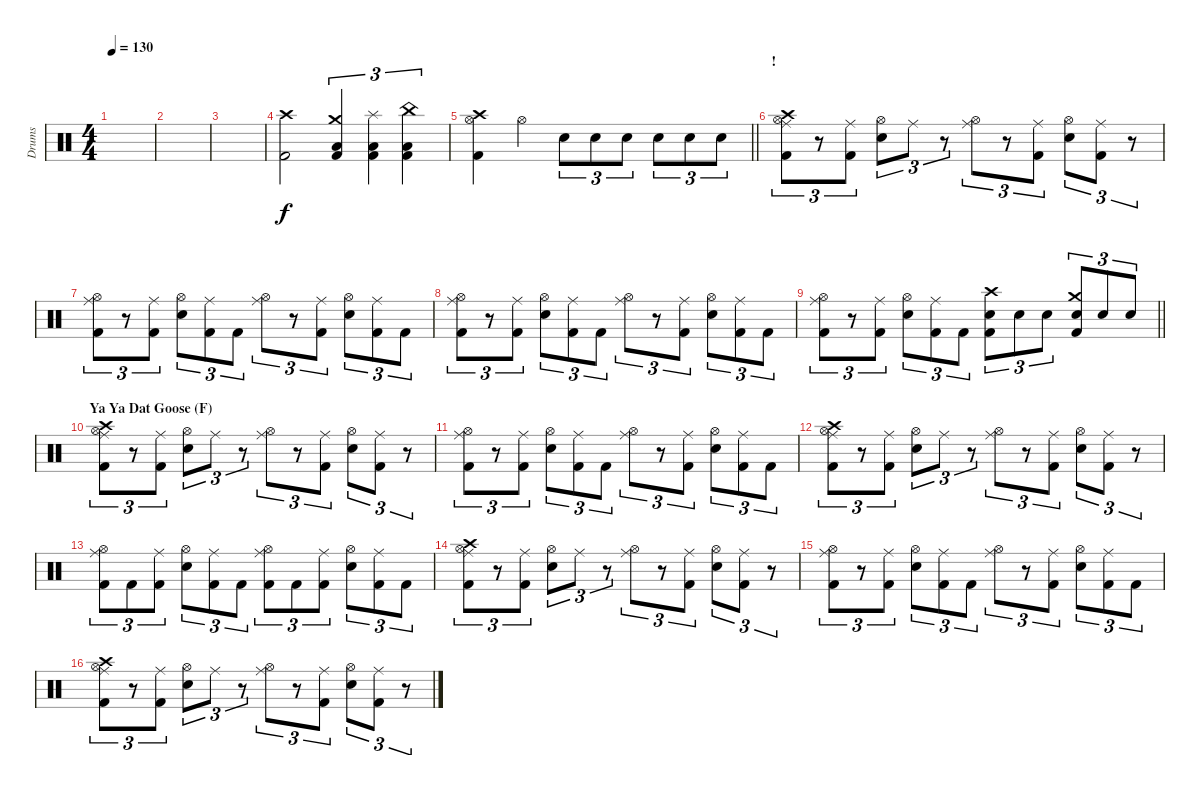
\track ("Drums" "Drums") {instrument percussion}
\staff {score}
\articulation defaults
\ts (4 4)
\tempo 130
\clef neutral
\ks c
|
|
|
("Crash high (hit)" "Kick (hit) 2").2 ("Crash medium (hit)" "Low Floor Tom (hit)" "Kick (hit) 2").4{tu (3 2)} ("Splash (hit)" "Low Floor Tom (hit)" "Kick (hit) 2").4{tu (3 2)} ("China (hit)" "Low Floor Tom (hit)" "Kick (hit) 2").4{tu (3 2)} |
\barLineRight lightlight
("Crash high (hit)" "Hi-Hat (open)" "Kick (hit) 2").4 "Hi-Hat (open)".4 "Snare (hit) 2".8{tu (3 2)} "Snare (hit) 2".8{tu (3 2)} "Snare (hit) 2".8{tu (3 2)} "Snare (hit) 2".8{tu (3 2)} "Snare (hit) 2".8{tu (3 2)} "Snare (hit) 2".8{tu (3 2)} |
\section ("" "!")
("Crash high (hit)" "Ride (middle)" "Hi-Hat (open)" "Kick (hit) 2").8{tu (3 2)} r.8{tu (3 2)} ("Ride (middle)" "Kick (hit) 2").8{tu (3 2)} ("Hi-Hat (open)" "Snare (hit) 2").8{tu (3 2)} "Ride (middle)".8{tu (3 2)} r.8{tu (3 2)} ("Ride (middle)" "Hi-Hat (open)").8{tu (3 2)} r.8{tu (3 2)} ("Ride (middle)" "Kick (hit) 2").8{tu (3 2)} ("Hi-Hat (open)" "Snare (hit) 2").8{tu (3 2)} ("Ride (middle)" "Kick (hit) 2").8{tu (3 2)} r.8{tu (3 2)} |
("Ride (middle)" "Hi-Hat (open)" "Kick (hit) 2").8{tu (3 2)} r.8{tu (3 2)} ("Ride (middle)" "Kick (hit) 2").8{tu (3 2)} ("Hi-Hat (open)" "Snare (hit) 2").8{tu (3 2)} ("Ride (middle)" "Kick (hit) 2").8{tu (3 2)} "Kick (hit) 2".8{tu (3 2)} ("Ride (middle)" "Hi-Hat (open)").8{tu (3 2)} r.8{tu (3 2)} ("Ride (middle)" "Kick (hit) 2").8{tu (3 2)} ("Hi-Hat (open)" "Snare (hit) 2").8{tu (3 2)} ("Ride (middle)" "Kick (hit) 2").8{tu (3 2)} "Kick (hit) 2".8{tu (3 2)} |
("Ride (middle)" "Hi-Hat (open)" "Kick (hit) 2").8{tu (3 2)} r.8{tu (3 2)} ("Ride (middle)" "Kick (hit) 2").8{tu (3 2)} ("Hi-Hat (open)" "Snare (hit) 2").8{tu (3 2)} ("Ride (middle)" "Kick (hit) 2").8{tu (3 2)} "Kick (hit) 2".8{tu (3 2)} ("Ride (middle)" "Hi-Hat (open)").8{tu (3 2)} r.8{tu (3 2)} ("Ride (middle)" "Kick (hit) 2").8{tu (3 2)} ("Hi-Hat (open)" "Snare (hit) 2").8{tu (3 2)} ("Ride (middle)" "Kick (hit) 2").8{tu (3 2)} "Kick (hit) 2".8{tu (3 2)} |
\barLineRight lightlight
("Ride (middle)" "Hi-Hat (open)" "Kick (hit) 2").8{tu (3 2)} r.8{tu (3 2)} ("Ride (middle)" "Kick (hit) 2").8{tu (3 2)} ("Hi-Hat (open)" "Snare (hit) 2").8{tu (3 2)} ("Ride (middle)" "Kick (hit) 2").8{tu (3 2)} "Kick (hit) 2".8{tu (3 2)} ("Crash high (hit)" "Snare (hit) 2" "Kick (hit) 2").8{tu (3 2)} "Snare (hit) 2".8{tu (3 2)} "Snare (hit) 2".8{tu (3 2)} ("Crash medium (hit)" "Snare (hit) 2" "Kick (hit) 2").8{tu (3 2)} "Snare (hit) 2".8{tu (3 2)} "Snare (hit) 2".8{tu (3 2)} |
\section ("" "Ya Ya Dat Goose (F)")
("Crash high (hit)" "Ride (middle)" "Hi-Hat (open)" "Kick (hit) 2").8{tu (3 2)} r.8{tu (3 2)} ("Ride (middle)" "Kick (hit) 2").8{tu (3 2)} ("Hi-Hat (open)" "Snare (hit) 2").8{tu (3 2)} "Ride (middle)".8{tu (3 2)} r.8{tu (3 2)} ("Ride (middle)" "Hi-Hat (open)").8{tu (3 2)} r.8{tu (3 2)} ("Ride (middle)" "Kick (hit) 2").8{tu (3 2)} ("Hi-Hat (open)" "Snare (hit) 2").8{tu (3 2)} ("Ride (middle)" "Kick (hit) 2").8{tu (3 2)} r.8{tu (3 2)} |
("Ride (middle)" "Hi-Hat (open)" "Kick (hit) 2").8{tu (3 2)} r.8{tu (3 2)} ("Ride (middle)" "Kick (hit) 2").8{tu (3 2)} ("Hi-Hat (open)" "Snare (hit) 2").8{tu (3 2)} ("Ride (middle)" "Kick (hit) 2").8{tu (3 2)} "Kick (hit) 2".8{tu (3 2)} ("Ride (middle)" "Hi-Hat (open)").8{tu (3 2)} r.8{tu (3 2)} ("Ride (middle)" "Kick (hit) 2").8{tu (3 2)} ("Hi-Hat (open)" "Snare (hit) 2").8{tu (3 2)} ("Ride (middle)" "Kick (hit) 2").8{tu (3 2)} "Kick (hit) 2".8{tu (3 2)} |
("Crash high (hit)" "Ride (middle)" "Hi-Hat (open)" "Kick (hit) 2").8{tu (3 2)} r.8{tu (3 2)} ("Ride (middle)" "Kick (hit) 2").8{tu (3 2)} ("Hi-Hat (open)" "Snare (hit) 2").8{tu (3 2)} "Ride (middle)".8{tu (3 2)} r.8{tu (3 2)} ("Ride (middle)" "Hi-Hat (open)").8{tu (3 2)} r.8{tu (3 2)} ("Ride (middle)" "Kick (hit) 2").8{tu (3 2)} ("Hi-Hat (open)" "Snare (hit) 2").8{tu (3 2)} ("Ride (middle)" "Kick (hit) 2").8{tu (3 2)} r.8{tu (3 2)} |
("Ride (middle)" "Hi-Hat (open)" "Kick (hit) 2").8{tu (3 2)} "Kick (hit) 2".8{tu (3 2)} ("Ride (middle)" "Kick (hit) 2").8{tu (3 2)} ("Hi-Hat (open)" "Snare (hit) 2").8{tu (3 2)} ("Ride (middle)" "Kick (hit) 2").8{tu (3 2)} "Kick (hit) 2".8{tu (3 2)} ("Ride (middle)" "Hi-Hat (open)" "Kick (hit) 2").8{tu (3 2)} "Kick (hit) 2".8{tu (3 2)} ("Ride (middle)" "Kick (hit) 2").8{tu (3 2)} ("Hi-Hat (open)" "Snare (hit) 2").8{tu (3 2)} ("Ride (middle)" "Kick (hit) 2").8{tu (3 2)} "Kick (hit) 2".8{tu (3 2)} |
("Crash high (hit)" "Ride (middle)" "Hi-Hat (open)" "Kick (hit) 2").8{tu (3 2)} r.8{tu (3 2)} ("Ride (middle)" "Kick (hit) 2").8{tu (3 2)} ("Hi-Hat (open)" "Snare (hit) 2").8{tu (3 2)} "Ride (middle)".8{tu (3 2)} r.8{tu (3 2)} ("Ride (middle)" "Hi-Hat (open)").8{tu (3 2)} r.8{tu (3 2)} ("Ride (middle)" "Kick (hit) 2").8{tu (3 2)} ("Hi-Hat (open)" "Snare (hit) 2").8{tu (3 2)} ("Ride (middle)" "Kick (hit) 2").8{tu (3 2)} r.8{tu (3 2)} |
("Ride (middle)" "Hi-Hat (open)" "Kick (hit) 2").8{tu (3 2)} r.8{tu (3 2)} ("Ride (middle)" "Kick (hit) 2").8{tu (3 2)} ("Hi-Hat (open)" "Snare (hit) 2").8{tu (3 2)} ("Ride (middle)" "Kick (hit) 2").8{tu (3 2)} "Kick (hit) 2".8{tu (3 2)} ("Ride (middle)" "Hi-Hat (open)").8{tu (3 2)} r.8{tu (3 2)} ("Ride (middle)" "Kick (hit) 2").8{tu (3 2)} ("Hi-Hat (open)" "Snare (hit) 2").8{tu (3 2)} ("Ride (middle)" "Kick (hit) 2").8{tu (3 2)} "Kick (hit) 2".8{tu (3 2)} |
("Crash high (hit)" "Ride (middle)" "Hi-Hat (open)" "Kick (hit) 2").8{tu (3 2)} r.8{tu (3 2)} ("Ride (middle)" "Kick (hit) 2").8{tu (3 2)} ("Hi-Hat (open)" "Snare (hit) 2").8{tu (3 2)} "Ride (middle)".8{tu (3 2)} r.8{tu (3 2)} ("Ride (middle)" "Hi-Hat (open)").8{tu (3 2)} r.8{tu (3 2)} ("Ride (middle)" "Kick (hit) 2").8{tu (3 2)} ("Hi-Hat (open)" "Snare (hit) 2").8{tu (3 2)} ("Ride (middle)" "Kick (hit) 2").8{tu (3 2)} r.8{tu (3 2)}
